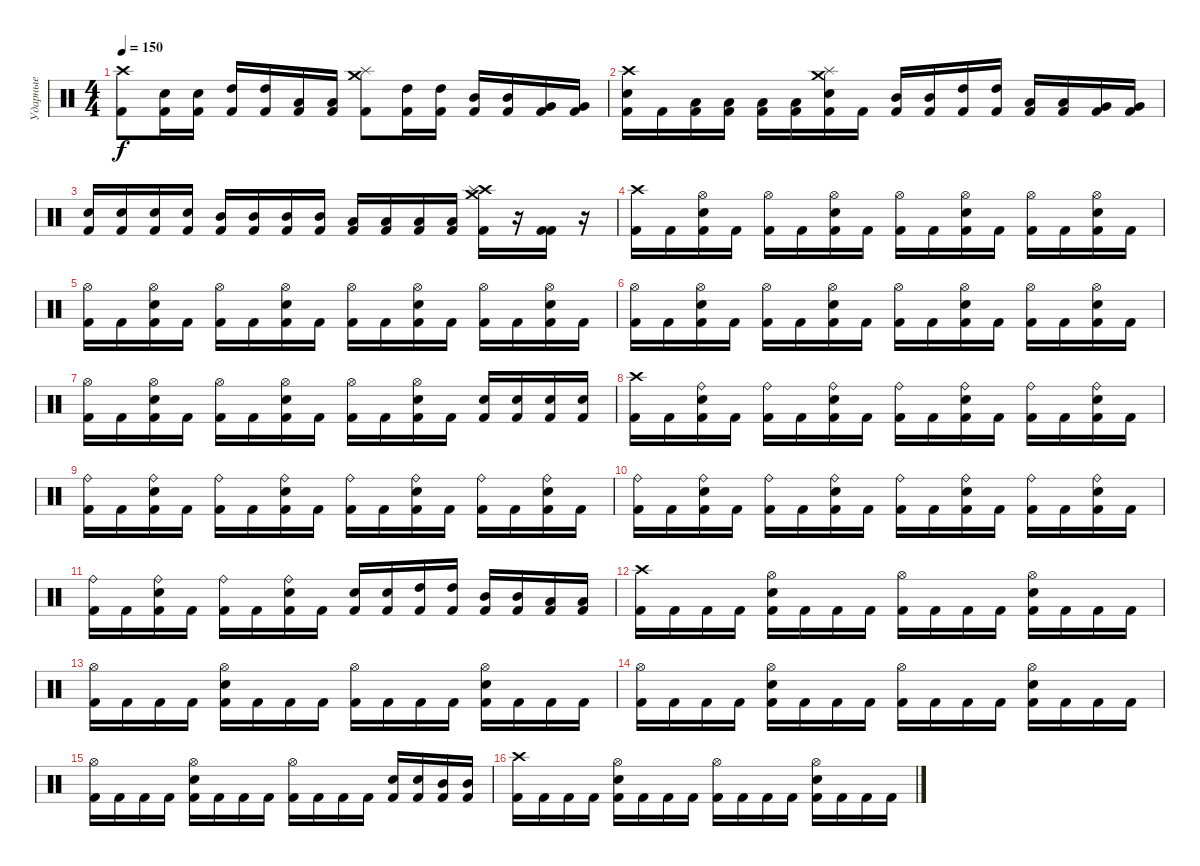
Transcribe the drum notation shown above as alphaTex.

\track ("Ударные" "Ударные") {instrument percussion}
\staff {score}
\articulation defaults
\ts (4 4)
\tempo 150
\clef neutral
\ks c
("Crash high (hit)" "Kick (hit) 2").8{dy f} ("Electric Snare (hit)" "Kick (hit) 2").16 ("Electric Snare (hit)" "Kick (hit) 2").16 ("High Tom (hit)" "Kick (hit) 2").16 ("High Tom (hit)" "Kick (hit) 2").16 ("Low Tom (hit)" "Kick (hit) 2").16 ("Low Tom (hit)" "Kick (hit) 2").16 ("Crash medium (hit)" "Splash (hit)" "Kick (hit) 2").8 ("High Tom (hit)" "Kick (hit) 2").16 ("High Tom (hit)" "Kick (hit) 2").16 ("Mid Tom (hit)" "Kick (hit) 2").16 ("Mid Tom (hit)" "Kick (hit) 2").16 ("Very Low Tom (hit)" "Kick (hit) 2").16 ("Very Low Tom (hit)" "Kick (hit) 2").16 |
("Crash high (hit)" "Electric Snare (hit)" "Kick (hit) 2").16 "Kick (hit) 2".16 ("Low Tom (hit)" "Kick (hit) 2").16 ("Low Tom (hit)" "Kick (hit) 2").16 ("Low Tom (hit)" "Kick (hit) 2").16 ("Low Tom (hit)" "Kick (hit) 2").16 ("Crash medium (hit)" "Splash (hit)" "Electric Snare (hit)" "Kick (hit) 2").16 "Kick (hit) 2".16 ("Mid Tom (hit)" "Kick (hit) 2").16 ("Mid Tom (hit)" "Kick (hit) 2").16 ("High Tom (hit)" "Kick (hit) 2").16 ("High Tom (hit)" "Kick (hit) 2").16 ("Low Tom (hit)" "Kick (hit) 2").16 ("Low Tom (hit)" "Kick (hit) 2").16 ("Very Low Tom (hit)" "Kick (hit) 2").16 ("Very Low Tom (hit)" "Kick (hit) 2").16 |
("Electric Snare (hit)" "Kick (hit) 2").16 ("Electric Snare (hit)" "Kick (hit) 2").16 ("Electric Snare (hit)" "Kick (hit) 2").16 ("Electric Snare (hit)" "Kick (hit) 2").16 ("Mid Tom (hit)" "Kick (hit) 2").16 ("Mid Tom (hit)" "Kick (hit) 2").16 ("Mid Tom (hit)" "Kick (hit) 2").16 ("Mid Tom (hit)" "Kick (hit) 2").16 ("Low Tom (hit)" "Kick (hit) 2").16 ("Low Tom (hit)" "Kick (hit) 2").16 ("Low Tom (hit)" "Kick (hit) 2").16 ("Low Tom (hit)" "Kick (hit) 2").16 ("Crash high (hit)" "Crash medium (hit)" "Splash (hit)" "Kick (hit) 2").16 r.16 ("Kick (hit) 2" "Kick (hit) 2").16 r.16 |
("Crash high (hit)" "Kick (hit) 2").16 "Kick (hit) 2".16 ("Hi-Hat (open)" "Electric Snare (hit)" "Kick (hit) 2").16 "Kick (hit) 2".16 ("Hi-Hat (open)" "Kick (hit) 2").16 "Kick (hit) 2".16 ("Hi-Hat (open)" "Electric Snare (hit)" "Kick (hit) 2").16 "Kick (hit) 2".16 ("Hi-Hat (open)" "Kick (hit) 2").16 "Kick (hit) 2".16 ("Hi-Hat (open)" "Electric Snare (hit)" "Kick (hit) 2").16 "Kick (hit) 2".16 ("Hi-Hat (open)" "Kick (hit) 2").16 "Kick (hit) 2".16 ("Hi-Hat (open)" "Electric Snare (hit)" "Kick (hit) 2").16 "Kick (hit) 2".16 |
("Hi-Hat (open)" "Kick (hit) 2").16 "Kick (hit) 2".16 ("Hi-Hat (open)" "Electric Snare (hit)" "Kick (hit) 2").16 "Kick (hit) 2".16 ("Hi-Hat (open)" "Kick (hit) 2").16 "Kick (hit) 2".16 ("Hi-Hat (open)" "Electric Snare (hit)" "Kick (hit) 2").16 "Kick (hit) 2".16 ("Hi-Hat (open)" "Kick (hit) 2").16 "Kick (hit) 2".16 ("Hi-Hat (open)" "Electric Snare (hit)" "Kick (hit) 2").16 "Kick (hit) 2".16 ("Hi-Hat (open)" "Kick (hit) 2").16 "Kick (hit) 2".16 ("Hi-Hat (open)" "Electric Snare (hit)" "Kick (hit) 2").16 "Kick (hit) 2".16 |
("Hi-Hat (open)" "Kick (hit) 2").16 "Kick (hit) 2".16 ("Hi-Hat (open)" "Electric Snare (hit)" "Kick (hit) 2").16 "Kick (hit) 2".16 ("Hi-Hat (open)" "Kick (hit) 2").16 "Kick (hit) 2".16 ("Hi-Hat (open)" "Electric Snare (hit)" "Kick (hit) 2").16 "Kick (hit) 2".16 ("Hi-Hat (open)" "Kick (hit) 2").16 "Kick (hit) 2".16 ("Hi-Hat (open)" "Electric Snare (hit)" "Kick (hit) 2").16 "Kick (hit) 2".16 ("Hi-Hat (open)" "Kick (hit) 2").16 "Kick (hit) 2".16 ("Hi-Hat (open)" "Electric Snare (hit)" "Kick (hit) 2").16 "Kick (hit) 2".16 |
("Hi-Hat (open)" "Kick (hit) 2").16 "Kick (hit) 2".16 ("Hi-Hat (open)" "Electric Snare (hit)" "Kick (hit) 2").16 "Kick (hit) 2".16 ("Hi-Hat (open)" "Kick (hit) 2").16 "Kick (hit) 2".16 ("Hi-Hat (open)" "Electric Snare (hit)" "Kick (hit) 2").16 "Kick (hit) 2".16 ("Hi-Hat (open)" "Kick (hit) 2").16 "Kick (hit) 2".16 ("Hi-Hat (open)" "Electric Snare (hit)" "Kick (hit) 2").16 "Kick (hit) 2".16 ("Electric Snare (hit)" "Kick (hit) 2").16 ("Electric Snare (hit)" "Kick (hit) 2").16 ("Electric Snare (hit)" "Kick (hit) 2").16 ("Electric Snare (hit)" "Kick (hit) 2").16 |
("Crash high (hit)" "Kick (hit) 2").16 "Kick (hit) 2".16 ("Ride (bell)" "Electric Snare (hit)" "Kick (hit) 2").16 "Kick (hit) 2".16 ("Ride (bell)" "Kick (hit) 2").16 "Kick (hit) 2".16 ("Ride (bell)" "Electric Snare (hit)" "Kick (hit) 2").16 "Kick (hit) 2".16 ("Ride (bell)" "Kick (hit) 2").16 "Kick (hit) 2".16 ("Ride (bell)" "Electric Snare (hit)" "Kick (hit) 2").16 "Kick (hit) 2".16 ("Ride (bell)" "Kick (hit) 2").16 "Kick (hit) 2".16 ("Ride (bell)" "Electric Snare (hit)" "Kick (hit) 2").16 "Kick (hit) 2".16 |
("Ride (bell)" "Kick (hit) 2").16 "Kick (hit) 2".16 ("Ride (bell)" "Electric Snare (hit)" "Kick (hit) 2").16 "Kick (hit) 2".16 ("Ride (bell)" "Kick (hit) 2").16 "Kick (hit) 2".16 ("Ride (bell)" "Electric Snare (hit)" "Kick (hit) 2").16 "Kick (hit) 2".16 ("Ride (bell)" "Kick (hit) 2").16 "Kick (hit) 2".16 ("Ride (bell)" "Electric Snare (hit)" "Kick (hit) 2").16 "Kick (hit) 2".16 ("Ride (bell)" "Kick (hit) 2").16 "Kick (hit) 2".16 ("Ride (bell)" "Electric Snare (hit)" "Kick (hit) 2").16 "Kick (hit) 2".16 |
("Ride (bell)" "Kick (hit) 2").16 "Kick (hit) 2".16 ("Ride (bell)" "Electric Snare (hit)" "Kick (hit) 2").16 "Kick (hit) 2".16 ("Ride (bell)" "Kick (hit) 2").16 "Kick (hit) 2".16 ("Ride (bell)" "Electric Snare (hit)" "Kick (hit) 2").16 "Kick (hit) 2".16 ("Ride (bell)" "Kick (hit) 2").16 "Kick (hit) 2".16 ("Ride (bell)" "Electric Snare (hit)" "Kick (hit) 2").16 "Kick (hit) 2".16 ("Ride (bell)" "Kick (hit) 2").16 "Kick (hit) 2".16 ("Ride (bell)" "Electric Snare (hit)" "Kick (hit) 2").16 "Kick (hit) 2".16 |
("Ride (bell)" "Kick (hit) 2").16 "Kick (hit) 2".16 ("Ride (bell)" "Electric Snare (hit)" "Kick (hit) 2").16 "Kick (hit) 2".16 ("Ride (bell)" "Kick (hit) 2").16 "Kick (hit) 2".16 ("Ride (bell)" "Electric Snare (hit)" "Kick (hit) 2").16 "Kick (hit) 2".16 ("Electric Snare (hit)" "Kick (hit) 2").16 ("Electric Snare (hit)" "Kick (hit) 2").16 ("High Tom (hit)" "Kick (hit) 2").16 ("High Tom (hit)" "Kick (hit) 2").16 ("Mid Tom (hit)" "Kick (hit) 2").16 ("Mid Tom (hit)" "Kick (hit) 2").16 ("Low Tom (hit)" "Kick (hit) 2").16 ("Low Tom (hit)" "Kick (hit) 2").16 |
("Crash high (hit)" "Kick (hit) 2").16 "Kick (hit) 2".16 "Kick (hit) 2".16 "Kick (hit) 2".16 ("Hi-Hat (open)" "Electric Snare (hit)" "Kick (hit) 2").16 "Kick (hit) 2".16 "Kick (hit) 2".16 "Kick (hit) 2".16 ("Hi-Hat (open)" "Kick (hit) 2").16 "Kick (hit) 2".16 "Kick (hit) 2".16 "Kick (hit) 2".16 ("Hi-Hat (open)" "Electric Snare (hit)" "Kick (hit) 2").16 "Kick (hit) 2".16 "Kick (hit) 2".16 "Kick (hit) 2".16 |
("Hi-Hat (open)" "Kick (hit) 2").16 "Kick (hit) 2".16 "Kick (hit) 2".16 "Kick (hit) 2".16 ("Hi-Hat (open)" "Electric Snare (hit)" "Kick (hit) 2").16 "Kick (hit) 2".16 "Kick (hit) 2".16 "Kick (hit) 2".16 ("Hi-Hat (open)" "Kick (hit) 2").16 "Kick (hit) 2".16 "Kick (hit) 2".16 "Kick (hit) 2".16 ("Hi-Hat (open)" "Electric Snare (hit)" "Kick (hit) 2").16 "Kick (hit) 2".16 "Kick (hit) 2".16 "Kick (hit) 2".16 |
("Hi-Hat (open)" "Kick (hit) 2").16 "Kick (hit) 2".16 "Kick (hit) 2".16 "Kick (hit) 2".16 ("Hi-Hat (open)" "Electric Snare (hit)" "Kick (hit) 2").16 "Kick (hit) 2".16 "Kick (hit) 2".16 "Kick (hit) 2".16 ("Hi-Hat (open)" "Kick (hit) 2").16 "Kick (hit) 2".16 "Kick (hit) 2".16 "Kick (hit) 2".16 ("Hi-Hat (open)" "Electric Snare (hit)" "Kick (hit) 2").16 "Kick (hit) 2".16 "Kick (hit) 2".16 "Kick (hit) 2".16 |
("Hi-Hat (open)" "Kick (hit) 2").16 "Kick (hit) 2".16 "Kick (hit) 2".16 "Kick (hit) 2".16 ("Hi-Hat (open)" "Electric Snare (hit)" "Kick (hit) 2").16 "Kick (hit) 2".16 "Kick (hit) 2".16 "Kick (hit) 2".16 ("Hi-Hat (open)" "Kick (hit) 2").16 "Kick (hit) 2".16 "Kick (hit) 2".16 "Kick (hit) 2".16 ("Electric Snare (hit)" "Kick (hit) 2").16 ("Electric Snare (hit)" "Kick (hit) 2").16 ("Mid Tom (hit)" "Kick (hit) 2").16 ("Mid Tom (hit)" "Kick (hit) 2").16 |
("Crash high (hit)" "Kick (hit) 2").16 "Kick (hit) 2".16 "Kick (hit) 2".16 "Kick (hit) 2".16 ("Hi-Hat (open)" "Electric Snare (hit)" "Kick (hit) 2").16 "Kick (hit) 2".16 "Kick (hit) 2".16 "Kick (hit) 2".16 ("Hi-Hat (open)" "Kick (hit) 2").16 "Kick (hit) 2".16 "Kick (hit) 2".16 "Kick (hit) 2".16 ("Hi-Hat (open)" "Electric Snare (hit)" "Kick (hit) 2").16 "Kick (hit) 2".16 "Kick (hit) 2".16 "Kick (hit) 2".16
